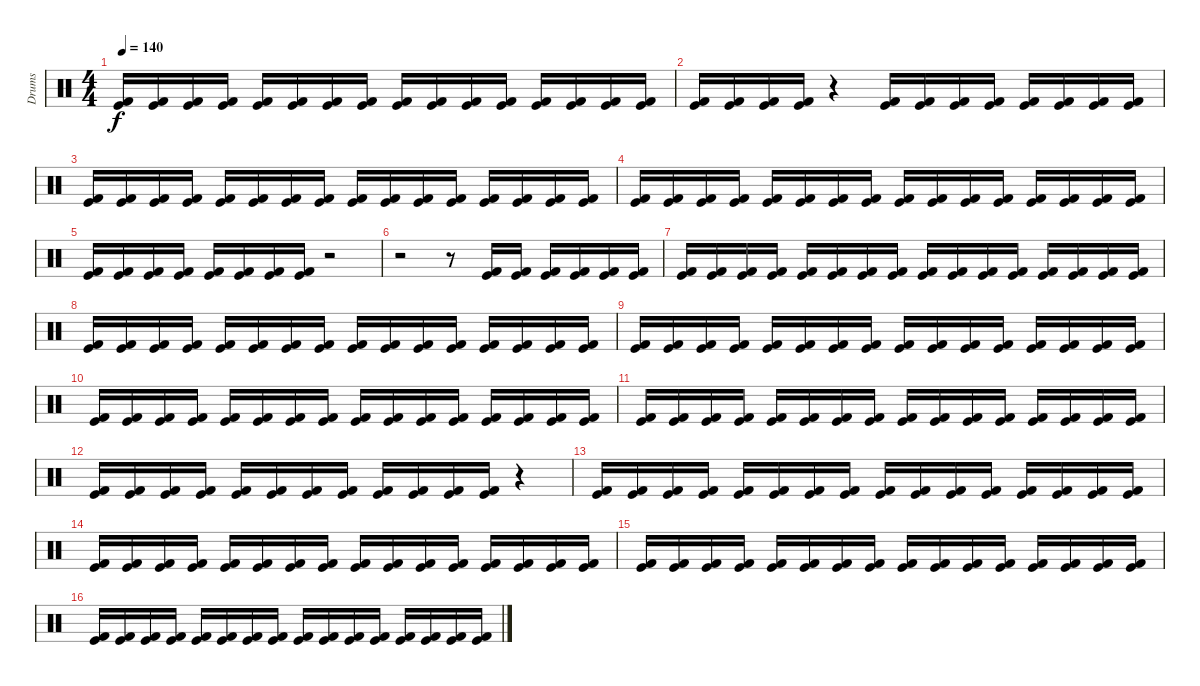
\track ("Drums" "Drums") {instrument percussion}
\staff {score}
\articulation defaults
\ts (4 4)
\tempo 140
\clef neutral
\ks c
("Kick (hit) 2" "Kick (hit)").16{dy f} ("Kick (hit) 2" "Kick (hit)").16 ("Kick (hit) 2" "Kick (hit)").16 ("Kick (hit) 2" "Kick (hit)").16 ("Kick (hit) 2" "Kick (hit)").16 ("Kick (hit) 2" "Kick (hit)").16 ("Kick (hit) 2" "Kick (hit)").16 ("Kick (hit) 2" "Kick (hit)").16 ("Kick (hit) 2" "Kick (hit)").16 ("Kick (hit) 2" "Kick (hit)").16 ("Kick (hit) 2" "Kick (hit)").16 ("Kick (hit) 2" "Kick (hit)").16 ("Kick (hit) 2" "Kick (hit)").16 ("Kick (hit) 2" "Kick (hit)").16 ("Kick (hit) 2" "Kick (hit)").16 ("Kick (hit) 2" "Kick (hit)").16 |
("Kick (hit) 2" "Kick (hit)").16 ("Kick (hit) 2" "Kick (hit)").16 ("Kick (hit) 2" "Kick (hit)").16 ("Kick (hit) 2" "Kick (hit)").16 r.4 ("Kick (hit) 2" "Kick (hit)").16 ("Kick (hit) 2" "Kick (hit)").16 ("Kick (hit) 2" "Kick (hit)").16 ("Kick (hit) 2" "Kick (hit)").16 ("Kick (hit) 2" "Kick (hit)").16 ("Kick (hit) 2" "Kick (hit)").16 ("Kick (hit) 2" "Kick (hit)").16 ("Kick (hit) 2" "Kick (hit)").16 |
("Kick (hit) 2" "Kick (hit)").16 ("Kick (hit) 2" "Kick (hit)").16 ("Kick (hit) 2" "Kick (hit)").16 ("Kick (hit) 2" "Kick (hit)").16 ("Kick (hit) 2" "Kick (hit)").16 ("Kick (hit) 2" "Kick (hit)").16 ("Kick (hit) 2" "Kick (hit)").16 ("Kick (hit) 2" "Kick (hit)").16 ("Kick (hit) 2" "Kick (hit)").16 ("Kick (hit) 2" "Kick (hit)").16 ("Kick (hit) 2" "Kick (hit)").16 ("Kick (hit) 2" "Kick (hit)").16 ("Kick (hit) 2" "Kick (hit)").16 ("Kick (hit) 2" "Kick (hit)").16 ("Kick (hit) 2" "Kick (hit)").16 ("Kick (hit) 2" "Kick (hit)").16 |
("Kick (hit) 2" "Kick (hit)").16 ("Kick (hit) 2" "Kick (hit)").16 ("Kick (hit) 2" "Kick (hit)").16 ("Kick (hit) 2" "Kick (hit)").16 ("Kick (hit) 2" "Kick (hit)").16 ("Kick (hit) 2" "Kick (hit)").16 ("Kick (hit) 2" "Kick (hit)").16 ("Kick (hit) 2" "Kick (hit)").16 ("Kick (hit) 2" "Kick (hit)").16 ("Kick (hit) 2" "Kick (hit)").16 ("Kick (hit) 2" "Kick (hit)").16 ("Kick (hit) 2" "Kick (hit)").16 ("Kick (hit) 2" "Kick (hit)").16 ("Kick (hit) 2" "Kick (hit)").16 ("Kick (hit) 2" "Kick (hit)").16 ("Kick (hit) 2" "Kick (hit)").16 |
("Kick (hit) 2" "Kick (hit)").16 ("Kick (hit) 2" "Kick (hit)").16 ("Kick (hit) 2" "Kick (hit)").16 ("Kick (hit) 2" "Kick (hit)").16 ("Kick (hit) 2" "Kick (hit)").16 ("Kick (hit) 2" "Kick (hit)").16 ("Kick (hit) 2" "Kick (hit)").16 ("Kick (hit) 2" "Kick (hit)").16 r.2 |
r.2 r.8 ("Kick (hit) 2" "Kick (hit)").16 ("Kick (hit) 2" "Kick (hit)").16 ("Kick (hit) 2" "Kick (hit)").16 ("Kick (hit) 2" "Kick (hit)").16 ("Kick (hit) 2" "Kick (hit)").16 ("Kick (hit) 2" "Kick (hit)").16 |
("Kick (hit) 2" "Kick (hit)").16 ("Kick (hit) 2" "Kick (hit)").16 ("Kick (hit) 2" "Kick (hit)").16 ("Kick (hit) 2" "Kick (hit)").16 ("Kick (hit) 2" "Kick (hit)").16 ("Kick (hit) 2" "Kick (hit)").16 ("Kick (hit) 2" "Kick (hit)").16 ("Kick (hit) 2" "Kick (hit)").16 ("Kick (hit) 2" "Kick (hit)").16 ("Kick (hit) 2" "Kick (hit)").16 ("Kick (hit) 2" "Kick (hit)").16 ("Kick (hit) 2" "Kick (hit)").16 ("Kick (hit) 2" "Kick (hit)").16 ("Kick (hit) 2" "Kick (hit)").16 ("Kick (hit) 2" "Kick (hit)").16 ("Kick (hit) 2" "Kick (hit)").16 |
("Kick (hit) 2" "Kick (hit)").16 ("Kick (hit) 2" "Kick (hit)").16 ("Kick (hit) 2" "Kick (hit)").16 ("Kick (hit) 2" "Kick (hit)").16 ("Kick (hit) 2" "Kick (hit)").16 ("Kick (hit) 2" "Kick (hit)").16 ("Kick (hit) 2" "Kick (hit)").16 ("Kick (hit) 2" "Kick (hit)").16 ("Kick (hit) 2" "Kick (hit)").16 ("Kick (hit) 2" "Kick (hit)").16 ("Kick (hit) 2" "Kick (hit)").16 ("Kick (hit) 2" "Kick (hit)").16 ("Kick (hit) 2" "Kick (hit)").16 ("Kick (hit) 2" "Kick (hit)").16 ("Kick (hit) 2" "Kick (hit)").16 ("Kick (hit) 2" "Kick (hit)").16 |
("Kick (hit) 2" "Kick (hit)").16 ("Kick (hit) 2" "Kick (hit)").16 ("Kick (hit) 2" "Kick (hit)").16 ("Kick (hit) 2" "Kick (hit)").16 ("Kick (hit) 2" "Kick (hit)").16 ("Kick (hit) 2" "Kick (hit)").16 ("Kick (hit) 2" "Kick (hit)").16 ("Kick (hit) 2" "Kick (hit)").16 ("Kick (hit) 2" "Kick (hit)").16 ("Kick (hit) 2" "Kick (hit)").16 ("Kick (hit) 2" "Kick (hit)").16 ("Kick (hit) 2" "Kick (hit)").16 ("Kick (hit) 2" "Kick (hit)").16 ("Kick (hit) 2" "Kick (hit)").16 ("Kick (hit) 2" "Kick (hit)").16 ("Kick (hit) 2" "Kick (hit)").16 |
("Kick (hit) 2" "Kick (hit)").16 ("Kick (hit) 2" "Kick (hit)").16 ("Kick (hit) 2" "Kick (hit)").16 ("Kick (hit) 2" "Kick (hit)").16 ("Kick (hit) 2" "Kick (hit)").16 ("Kick (hit) 2" "Kick (hit)").16 ("Kick (hit) 2" "Kick (hit)").16 ("Kick (hit) 2" "Kick (hit)").16 ("Kick (hit) 2" "Kick (hit)").16 ("Kick (hit) 2" "Kick (hit)").16 ("Kick (hit) 2" "Kick (hit)").16 ("Kick (hit) 2" "Kick (hit)").16 ("Kick (hit) 2" "Kick (hit)").16 ("Kick (hit) 2" "Kick (hit)").16 ("Kick (hit) 2" "Kick (hit)").16 ("Kick (hit) 2" "Kick (hit)").16 |
("Kick (hit) 2" "Kick (hit)").16 ("Kick (hit) 2" "Kick (hit)").16 ("Kick (hit) 2" "Kick (hit)").16 ("Kick (hit) 2" "Kick (hit)").16 ("Kick (hit) 2" "Kick (hit)").16 ("Kick (hit) 2" "Kick (hit)").16 ("Kick (hit) 2" "Kick (hit)").16 ("Kick (hit) 2" "Kick (hit)").16 ("Kick (hit) 2" "Kick (hit)").16 ("Kick (hit) 2" "Kick (hit)").16 ("Kick (hit) 2" "Kick (hit)").16 ("Kick (hit) 2" "Kick (hit)").16 ("Kick (hit) 2" "Kick (hit)").16 ("Kick (hit) 2" "Kick (hit)").16 ("Kick (hit) 2" "Kick (hit)").16 ("Kick (hit) 2" "Kick (hit)").16 |
("Kick (hit) 2" "Kick (hit)").16 ("Kick (hit) 2" "Kick (hit)").16 ("Kick (hit) 2" "Kick (hit)").16 ("Kick (hit) 2" "Kick (hit)").16 ("Kick (hit) 2" "Kick (hit)").16 ("Kick (hit) 2" "Kick (hit)").16 ("Kick (hit) 2" "Kick (hit)").16 ("Kick (hit) 2" "Kick (hit)").16 ("Kick (hit) 2" "Kick (hit)").16 ("Kick (hit) 2" "Kick (hit)").16 ("Kick (hit) 2" "Kick (hit)").16 ("Kick (hit) 2" "Kick (hit)").16 r.4 |
("Kick (hit) 2" "Kick (hit)").16 ("Kick (hit) 2" "Kick (hit)").16 ("Kick (hit) 2" "Kick (hit)").16 ("Kick (hit) 2" "Kick (hit)").16 ("Kick (hit) 2" "Kick (hit)").16 ("Kick (hit) 2" "Kick (hit)").16 ("Kick (hit) 2" "Kick (hit)").16 ("Kick (hit) 2" "Kick (hit)").16 ("Kick (hit) 2" "Kick (hit)").16 ("Kick (hit) 2" "Kick (hit)").16 ("Kick (hit) 2" "Kick (hit)").16 ("Kick (hit) 2" "Kick (hit)").16 ("Kick (hit) 2" "Kick (hit)").16 ("Kick (hit) 2" "Kick (hit)").16 ("Kick (hit) 2" "Kick (hit)").16 ("Kick (hit) 2" "Kick (hit)").16 |
("Kick (hit) 2" "Kick (hit)").16 ("Kick (hit) 2" "Kick (hit)").16 ("Kick (hit) 2" "Kick (hit)").16 ("Kick (hit) 2" "Kick (hit)").16 ("Kick (hit) 2" "Kick (hit)").16 ("Kick (hit) 2" "Kick (hit)").16 ("Kick (hit) 2" "Kick (hit)").16 ("Kick (hit) 2" "Kick (hit)").16 ("Kick (hit) 2" "Kick (hit)").16 ("Kick (hit) 2" "Kick (hit)").16 ("Kick (hit) 2" "Kick (hit)").16 ("Kick (hit) 2" "Kick (hit)").16 ("Kick (hit) 2" "Kick (hit)").16 ("Kick (hit) 2" "Kick (hit)").16 ("Kick (hit) 2" "Kick (hit)").16 ("Kick (hit) 2" "Kick (hit)").16 |
("Kick (hit) 2" "Kick (hit)").16 ("Kick (hit) 2" "Kick (hit)").16 ("Kick (hit) 2" "Kick (hit)").16 ("Kick (hit) 2" "Kick (hit)").16 ("Kick (hit) 2" "Kick (hit)").16 ("Kick (hit) 2" "Kick (hit)").16 ("Kick (hit) 2" "Kick (hit)").16 ("Kick (hit) 2" "Kick (hit)").16 ("Kick (hit) 2" "Kick (hit)").16 ("Kick (hit) 2" "Kick (hit)").16 ("Kick (hit) 2" "Kick (hit)").16 ("Kick (hit) 2" "Kick (hit)").16 ("Kick (hit) 2" "Kick (hit)").16 ("Kick (hit) 2" "Kick (hit)").16 ("Kick (hit) 2" "Kick (hit)").16 ("Kick (hit) 2" "Kick (hit)").16 |
("Kick (hit) 2" "Kick (hit)").16 ("Kick (hit) 2" "Kick (hit)").16 ("Kick (hit) 2" "Kick (hit)").16 ("Kick (hit) 2" "Kick (hit)").16 ("Kick (hit) 2" "Kick (hit)").16 ("Kick (hit) 2" "Kick (hit)").16 ("Kick (hit) 2" "Kick (hit)").16 ("Kick (hit) 2" "Kick (hit)").16 ("Kick (hit) 2" "Kick (hit)").16 ("Kick (hit) 2" "Kick (hit)").16 ("Kick (hit) 2" "Kick (hit)").16 ("Kick (hit) 2" "Kick (hit)").16 ("Kick (hit) 2" "Kick (hit)").16 ("Kick (hit) 2" "Kick (hit)").16 ("Kick (hit) 2" "Kick (hit)").16 ("Kick (hit) 2" "Kick (hit)").16
